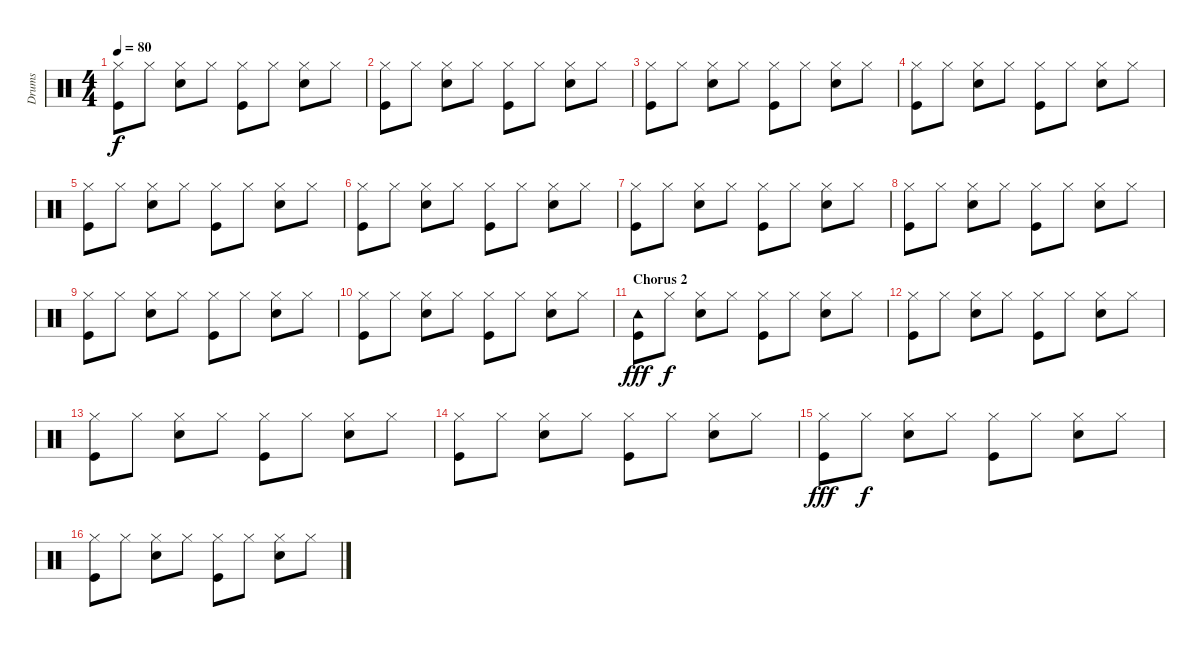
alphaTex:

\track ("Drums" "Drums") {instrument percussion}
\staff {score}
\articulation defaults
\ts (4 4)
\tempo 80
\clef neutral
\ks c
("Hi-Hat (closed)" "Kick (hit)").8{dy f} "Hi-Hat (closed)".8 ("Hi-Hat (closed)" "Snare (hit) 2").8 "Hi-Hat (closed)".8 ("Hi-Hat (closed)" "Kick (hit)").8 "Hi-Hat (closed)".8 ("Hi-Hat (closed)" "Snare (hit) 2").8 "Hi-Hat (closed)".8 |
("Hi-Hat (closed)" "Kick (hit)").8 "Hi-Hat (closed)".8 ("Hi-Hat (closed)" "Snare (hit) 2").8 "Hi-Hat (closed)".8 ("Hi-Hat (closed)" "Kick (hit)").8 "Hi-Hat (closed)".8 ("Hi-Hat (closed)" "Snare (hit) 2").8 "Hi-Hat (closed)".8 |
("Hi-Hat (closed)" "Kick (hit)").8 "Hi-Hat (closed)".8 ("Hi-Hat (closed)" "Snare (hit) 2").8 "Hi-Hat (closed)".8 ("Hi-Hat (closed)" "Kick (hit)").8 "Hi-Hat (closed)".8 ("Hi-Hat (closed)" "Snare (hit) 2").8 "Hi-Hat (closed)".8 |
("Hi-Hat (closed)" "Kick (hit)").8 "Hi-Hat (closed)".8 ("Hi-Hat (closed)" "Snare (hit) 2").8 "Hi-Hat (closed)".8 ("Hi-Hat (closed)" "Kick (hit)").8 "Hi-Hat (closed)".8 ("Hi-Hat (closed)" "Snare (hit) 2").8 "Hi-Hat (closed)".8 |
("Hi-Hat (closed)" "Kick (hit)").8 "Hi-Hat (closed)".8 ("Hi-Hat (closed)" "Snare (hit) 2").8 "Hi-Hat (closed)".8 ("Hi-Hat (closed)" "Kick (hit)").8 "Hi-Hat (closed)".8 ("Hi-Hat (closed)" "Snare (hit) 2").8 "Hi-Hat (closed)".8 |
("Hi-Hat (closed)" "Kick (hit)").8 "Hi-Hat (closed)".8 ("Hi-Hat (closed)" "Snare (hit) 2").8 "Hi-Hat (closed)".8 ("Hi-Hat (closed)" "Kick (hit)").8 "Hi-Hat (closed)".8 ("Hi-Hat (closed)" "Snare (hit) 2").8 "Hi-Hat (closed)".8 |
("Hi-Hat (closed)" "Kick (hit)").8 "Hi-Hat (closed)".8 ("Hi-Hat (closed)" "Snare (hit) 2").8 "Hi-Hat (closed)".8 ("Hi-Hat (closed)" "Kick (hit)").8 "Hi-Hat (closed)".8 ("Hi-Hat (closed)" "Snare (hit) 2").8 "Hi-Hat (closed)".8 |
("Hi-Hat (closed)" "Kick (hit)").8 "Hi-Hat (closed)".8 ("Hi-Hat (closed)" "Snare (hit) 2").8 "Hi-Hat (closed)".8 ("Hi-Hat (closed)" "Kick (hit)").8 "Hi-Hat (closed)".8 ("Hi-Hat (closed)" "Snare (hit) 2").8 "Hi-Hat (closed)".8 |
("Hi-Hat (closed)" "Kick (hit)").8 "Hi-Hat (closed)".8 ("Hi-Hat (closed)" "Snare (hit) 2").8 "Hi-Hat (closed)".8 ("Hi-Hat (closed)" "Kick (hit)").8 "Hi-Hat (closed)".8 ("Hi-Hat (closed)" "Snare (hit) 2").8 "Hi-Hat (closed)".8 |
("Hi-Hat (closed)" "Kick (hit)").8 "Hi-Hat (closed)".8 ("Hi-Hat (closed)" "Snare (hit) 2").8 "Hi-Hat (closed)".8 ("Hi-Hat (closed)" "Kick (hit)").8 "Hi-Hat (closed)".8 ("Hi-Hat (closed)" "Snare (hit) 2").8 "Hi-Hat (closed)".8 |
\section ("" "Chorus 2")
("Tambourine (hit)" "Kick (hit)").8{dy fff} "Hi-Hat (closed)".8{dy f} ("Hi-Hat (closed)" "Snare (hit) 2").8 "Hi-Hat (closed)".8 ("Hi-Hat (closed)" "Kick (hit)").8 "Hi-Hat (closed)".8 ("Hi-Hat (closed)" "Snare (hit) 2").8 "Hi-Hat (closed)".8 |
("Hi-Hat (closed)" "Kick (hit)").8 "Hi-Hat (closed)".8 ("Hi-Hat (closed)" "Snare (hit) 2").8 "Hi-Hat (closed)".8 ("Hi-Hat (closed)" "Kick (hit)").8 "Hi-Hat (closed)".8 ("Hi-Hat (closed)" "Snare (hit) 2").8 "Hi-Hat (closed)".8 |
("Hi-Hat (closed)" "Kick (hit)").8 "Hi-Hat (closed)".8 ("Hi-Hat (closed)" "Snare (hit) 2").8 "Hi-Hat (closed)".8 ("Hi-Hat (closed)" "Kick (hit)").8 "Hi-Hat (closed)".8 ("Hi-Hat (closed)" "Snare (hit) 2").8 "Hi-Hat (closed)".8 |
("Hi-Hat (closed)" "Kick (hit)").8 "Hi-Hat (closed)".8 ("Hi-Hat (closed)" "Snare (hit) 2").8 "Hi-Hat (closed)".8 ("Hi-Hat (closed)" "Kick (hit)").8 "Hi-Hat (closed)".8 ("Hi-Hat (closed)" "Snare (hit) 2").8 "Hi-Hat (closed)".8 |
("Hi-Hat (closed)" "Kick (hit)").8{dy fff} "Hi-Hat (closed)".8{dy f} ("Hi-Hat (closed)" "Snare (hit) 2").8 "Hi-Hat (closed)".8 ("Hi-Hat (closed)" "Kick (hit)").8 "Hi-Hat (closed)".8 ("Hi-Hat (closed)" "Snare (hit) 2").8 "Hi-Hat (closed)".8 |
("Hi-Hat (closed)" "Kick (hit)").8 "Hi-Hat (closed)".8 ("Hi-Hat (closed)" "Snare (hit) 2").8 "Hi-Hat (closed)".8 ("Hi-Hat (closed)" "Kick (hit)").8 "Hi-Hat (closed)".8 ("Hi-Hat (closed)" "Snare (hit) 2").8 "Hi-Hat (closed)".8
